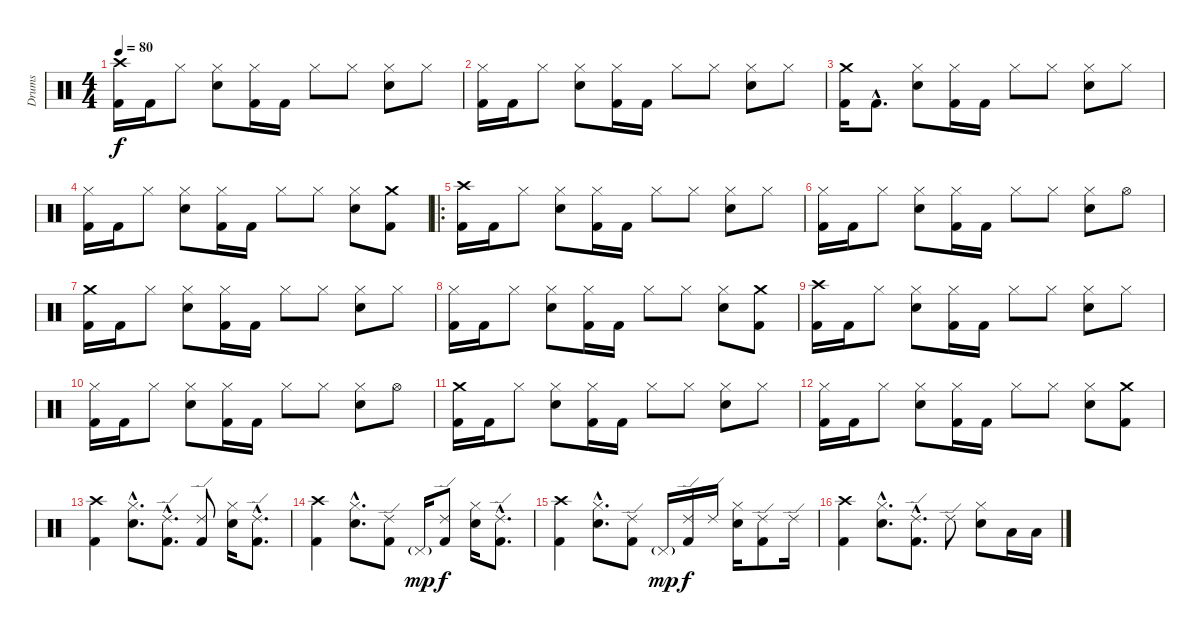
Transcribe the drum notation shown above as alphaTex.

\track ("Drums" "Drums") {instrument percussion}
\staff {score}
\articulation defaults
\ts (4 4)
\tempo 80
\clef neutral
\ks c
("Crash high (hit)" "Kick (hit) 2").16{dy f} "Kick (hit) 2".16 "Hi-Hat (closed)".8 ("Hi-Hat (closed)" "Snare (hit) 2").8 ("Hi-Hat (closed)" "Kick (hit) 2").16 "Kick (hit) 2".16 "Hi-Hat (closed)".8 "Hi-Hat (closed)".8 ("Hi-Hat (closed)" "Snare (hit) 2").8 "Hi-Hat (closed)".8 |
("Hi-Hat (closed)" "Kick (hit) 2").16 "Kick (hit) 2".16 "Hi-Hat (closed)".8 ("Hi-Hat (closed)" "Snare (hit) 2").8 ("Hi-Hat (closed)" "Kick (hit) 2").16 "Kick (hit) 2".16 "Hi-Hat (closed)".8 "Hi-Hat (closed)".8 ("Hi-Hat (closed)" "Snare (hit) 2").8 "Hi-Hat (closed)".8 |
("Crash medium (hit)" "Kick (hit) 2").16 "Kick (hit) 2"{hac}.8{d} ("Hi-Hat (closed)" "Snare (hit) 2").8 ("Hi-Hat (closed)" "Kick (hit) 2").16 "Kick (hit) 2".16 "Hi-Hat (closed)".8 "Hi-Hat (closed)".8 ("Hi-Hat (closed)" "Snare (hit) 2").8 "Hi-Hat (closed)".8 |
("Hi-Hat (closed)" "Kick (hit) 2").16 "Kick (hit) 2".16 "Hi-Hat (closed)".8 ("Hi-Hat (closed)" "Snare (hit) 2").8 ("Hi-Hat (closed)" "Kick (hit) 2").16 "Kick (hit) 2".16 "Hi-Hat (closed)".8 "Hi-Hat (closed)".8 ("Hi-Hat (closed)" "Snare (hit) 2").8 ("Crash medium (hit)" "Kick (hit) 2").8 |
\ro
("Crash high (hit)" "Kick (hit) 2").16 "Kick (hit) 2".16 "Hi-Hat (closed)".8 ("Hi-Hat (closed)" "Snare (hit) 2").8 ("Hi-Hat (closed)" "Kick (hit) 2").16 "Kick (hit) 2".16 "Hi-Hat (closed)".8 "Hi-Hat (closed)".8 ("Hi-Hat (closed)" "Snare (hit) 2").8 "Hi-Hat (closed)".8 |
("Hi-Hat (closed)" "Kick (hit) 2").16 "Kick (hit) 2".16 "Hi-Hat (closed)".8 ("Hi-Hat (closed)" "Snare (hit) 2").8 ("Hi-Hat (closed)" "Kick (hit) 2").16 "Kick (hit) 2".16 "Hi-Hat (closed)".8 "Hi-Hat (closed)".8 ("Hi-Hat (closed)" "Snare (hit) 2").8 "Hi-Hat (open)".8 |
("Crash medium (hit)" "Kick (hit) 2").16 "Kick (hit) 2".16 "Hi-Hat (closed)".8 ("Hi-Hat (closed)" "Snare (hit) 2").8 ("Hi-Hat (closed)" "Kick (hit) 2").16 "Kick (hit) 2".16 "Hi-Hat (closed)".8 "Hi-Hat (closed)".8 ("Hi-Hat (closed)" "Snare (hit) 2").8 "Hi-Hat (closed)".8 |
("Hi-Hat (closed)" "Kick (hit) 2").16 "Kick (hit) 2".16 "Hi-Hat (closed)".8 ("Hi-Hat (closed)" "Snare (hit) 2").8 ("Hi-Hat (closed)" "Kick (hit) 2").16 "Kick (hit) 2".16 "Hi-Hat (closed)".8 "Hi-Hat (closed)".8 ("Hi-Hat (closed)" "Snare (hit) 2").8 ("Crash medium (hit)" "Kick (hit) 2").8 |
("Crash high (hit)" "Kick (hit) 2").16 "Kick (hit) 2".16 "Hi-Hat (closed)".8 ("Hi-Hat (closed)" "Snare (hit) 2").8 ("Hi-Hat (closed)" "Kick (hit) 2").16 "Kick (hit) 2".16 "Hi-Hat (closed)".8 "Hi-Hat (closed)".8 ("Hi-Hat (closed)" "Snare (hit) 2").8 "Hi-Hat (closed)".8 |
("Hi-Hat (closed)" "Kick (hit) 2").16 "Kick (hit) 2".16 "Hi-Hat (closed)".8 ("Hi-Hat (closed)" "Snare (hit) 2").8 ("Hi-Hat (closed)" "Kick (hit) 2").16 "Kick (hit) 2".16 "Hi-Hat (closed)".8 "Hi-Hat (closed)".8 ("Hi-Hat (closed)" "Snare (hit) 2").8 "Hi-Hat (open)".8 |
("Crash medium (hit)" "Kick (hit) 2").16 "Kick (hit) 2".16 "Hi-Hat (closed)".8 ("Hi-Hat (closed)" "Snare (hit) 2").8 ("Hi-Hat (closed)" "Kick (hit) 2").16 "Kick (hit) 2".16 "Hi-Hat (closed)".8 "Hi-Hat (closed)".8 ("Hi-Hat (closed)" "Snare (hit) 2").8 "Hi-Hat (closed)".8 |
("Hi-Hat (closed)" "Kick (hit) 2").16 "Kick (hit) 2".16 "Hi-Hat (closed)".8 ("Hi-Hat (closed)" "Snare (hit) 2").8 ("Hi-Hat (closed)" "Kick (hit) 2").16 "Kick (hit) 2".16 "Hi-Hat (closed)".8 "Hi-Hat (closed)".8 ("Hi-Hat (closed)" "Snare (hit) 2").8 ("Crash medium (hit)" "Kick (hit) 2").8 |
("Crash high (hit)" "Kick (hit) 2").4 ("Hi-Hat (closed)"{hac} "Snare (hit) 2"{hac}).8{d} ("Ride (edge) 2"{hac} "Kick (hit) 2"{hac}).8{d} ("Ride (edge) 2" "Kick (hit) 2").8 ("Hi-Hat (closed)" "Snare (hit) 2").16 ("Ride (edge) 2"{hac} "Kick (hit) 2"{hac}).8{d} |
("Crash high (hit)" "Kick (hit) 2").4 ("Hi-Hat (closed)"{hac} "Snare (hit) 2"{hac}).8{d} ("Ride (edge) 2" "Kick (hit) 2").8 "Pedal Hi-Hat (hit)"{g}.16{dy mp} ("Ride (edge) 2" "Kick (hit) 2").8{dy f} ("Hi-Hat (closed)" "Snare (hit) 2").16 ("Ride (edge) 2"{hac} "Kick (hit) 2"{hac}).8{d} |
("Crash high (hit)" "Kick (hit) 2").4 ("Hi-Hat (closed)"{hac} "Snare (hit) 2"{hac}).8{d} ("Ride (edge) 2" "Kick (hit) 2").8 "Pedal Hi-Hat (hit)"{g}.16{dy mp} ("Ride (edge) 2" "Kick (hit) 2").16{dy f} "Ride (edge) 2".16 ("Hi-Hat (closed)" "Snare (hit) 2").16 ("Ride (edge) 2" "Kick (hit) 2").8 "Ride (edge) 2".16 |
("Crash high (hit)" "Kick (hit) 2").4 ("Hi-Hat (closed)"{hac} "Snare (hit) 2"{hac}).8{d} ("Ride (edge) 2"{hac} "Kick (hit) 2"{hac}).8{d} "Ride (edge) 2".8 ("Hi-Hat (closed)" "Snare (hit) 2").8 "Low Tom (hit)".16 "Low Tom (hit)".16
